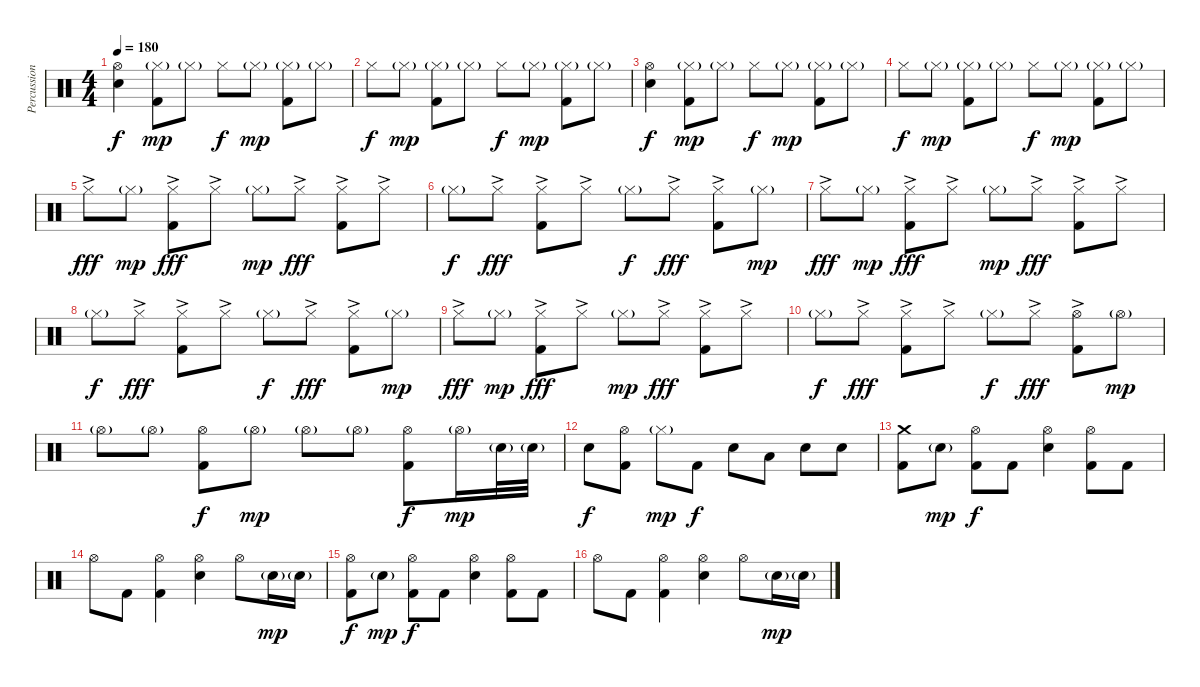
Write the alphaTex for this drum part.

\track ("Percussion" "Percussion") {instrument percussion}
\staff {score}
\articulation defaults
\ts (4 4)
\tempo 180
\clef neutral
\ks c
("Hi-Hat (open)" "Electric Snare (hit)").4{dy f} ("Hi-Hat (closed)"{g} "Kick (hit) 2").8{dy mp} "Hi-Hat (closed)"{g}.8 "Hi-Hat (closed)".8{dy f} "Hi-Hat (closed)"{g}.8{dy mp} ("Hi-Hat (closed)"{g} "Kick (hit) 2").8 "Hi-Hat (closed)"{g}.8 |
"Hi-Hat (closed)".8{dy f} "Hi-Hat (closed)"{g}.8{dy mp} ("Hi-Hat (closed)"{g} "Kick (hit) 2").8 "Hi-Hat (closed)"{g}.8 "Hi-Hat (closed)".8{dy f} "Hi-Hat (closed)"{g}.8{dy mp} ("Hi-Hat (closed)"{g} "Kick (hit) 2").8 "Hi-Hat (closed)"{g}.8 |
("Hi-Hat (open)" "Electric Snare (hit)").4{dy f} ("Hi-Hat (closed)"{g} "Kick (hit) 2").8{dy mp} "Hi-Hat (closed)"{g}.8 "Hi-Hat (closed)".8{dy f} "Hi-Hat (closed)"{g}.8{dy mp} ("Hi-Hat (closed)"{g} "Kick (hit) 2").8 "Hi-Hat (closed)"{g}.8 |
"Hi-Hat (closed)".8{dy f} "Hi-Hat (closed)"{g}.8{dy mp} ("Hi-Hat (closed)"{g} "Kick (hit) 2").8 "Hi-Hat (closed)"{g}.8 "Hi-Hat (closed)".8{dy f} "Hi-Hat (closed)"{g}.8{dy mp} ("Hi-Hat (closed)"{g} "Kick (hit) 2").8 "Hi-Hat (closed)"{g}.8 |
"Hi-Hat (closed)"{ac}.8{dy fff} "Hi-Hat (closed)"{g}.8{dy mp} ("Hi-Hat (closed)"{ac} "Kick (hit) 2").8{dy fff} "Hi-Hat (closed)"{ac}.8 "Hi-Hat (closed)"{g}.8{dy mp} "Hi-Hat (closed)"{ac}.8{dy fff} ("Hi-Hat (closed)"{ac} "Kick (hit) 2").8 "Hi-Hat (closed)"{ac}.8 |
"Hi-Hat (closed)"{g}.8{dy f} "Hi-Hat (closed)"{ac}.8{dy fff} ("Hi-Hat (closed)"{ac} "Kick (hit) 2").8 "Hi-Hat (closed)"{ac}.8 "Hi-Hat (closed)"{g}.8{dy f} "Hi-Hat (closed)"{ac}.8{dy fff} ("Hi-Hat (closed)"{ac} "Kick (hit) 2").8 "Hi-Hat (closed)"{g}.8{dy mp} |
"Hi-Hat (closed)"{ac}.8{dy fff} "Hi-Hat (closed)"{g}.8{dy mp} ("Hi-Hat (closed)"{ac} "Kick (hit) 2").8{dy fff} "Hi-Hat (closed)"{ac}.8 "Hi-Hat (closed)"{g}.8{dy mp} "Hi-Hat (closed)"{ac}.8{dy fff} ("Hi-Hat (closed)"{ac} "Kick (hit) 2").8 "Hi-Hat (closed)"{ac}.8 |
"Hi-Hat (closed)"{g}.8{dy f} "Hi-Hat (closed)"{ac}.8{dy fff} ("Hi-Hat (closed)"{ac} "Kick (hit) 2").8 "Hi-Hat (closed)"{ac}.8 "Hi-Hat (closed)"{g}.8{dy f} "Hi-Hat (closed)"{ac}.8{dy fff} ("Hi-Hat (closed)"{ac} "Kick (hit) 2").8 "Hi-Hat (closed)"{g}.8{dy mp} |
"Hi-Hat (closed)"{ac}.8{dy fff} "Hi-Hat (closed)"{g}.8{dy mp} ("Hi-Hat (closed)"{ac} "Kick (hit) 2").8{dy fff} "Hi-Hat (closed)"{ac}.8 "Hi-Hat (closed)"{g}.8{dy mp} "Hi-Hat (closed)"{ac}.8{dy fff} ("Hi-Hat (closed)"{ac} "Kick (hit) 2").8 "Hi-Hat (closed)"{ac}.8 |
"Hi-Hat (closed)"{g}.8{dy f} "Hi-Hat (closed)"{ac}.8{dy fff} ("Hi-Hat (closed)"{ac} "Kick (hit) 2").8 "Hi-Hat (closed)"{ac}.8 "Hi-Hat (closed)"{g}.8{dy f} "Hi-Hat (closed)"{ac}.8{dy fff} ("Hi-Hat (open)"{ac} "Kick (hit) 2").8 "Hi-Hat (open)"{g}.8{dy mp} |
"Hi-Hat (open)"{g}.8 "Hi-Hat (open)"{g}.8 ("Hi-Hat (open)" "Kick (hit) 2").8{dy f} "Hi-Hat (open)"{g}.8{dy mp} "Hi-Hat (open)"{g}.8 "Hi-Hat (open)"{g}.8 ("Hi-Hat (open)" "Kick (hit) 2").8{dy f} "Hi-Hat (open)"{g}.16{dy mp} "Electric Snare (hit)"{g}.32 "Electric Snare (hit)"{g}.32 |
"Electric Snare (hit)".8{dy f} ("Hi-Hat (open)" "Kick (hit) 2").8 "Hi-Hat (closed)"{g}.8{dy mp} "Kick (hit) 2".8{dy f} "Electric Snare (hit)".8 "Low Tom (hit)".8 "Electric Snare (hit)".8 "Electric Snare (hit)".8 |
("Crash medium (hit)" "Kick (hit) 2").8 "Electric Snare (hit)"{g}.8{dy mp} ("Hi-Hat (open)" "Kick (hit) 2").8{dy f} "Kick (hit) 2".8 ("Hi-Hat (open)" "Electric Snare (hit)").4 ("Hi-Hat (open)" "Kick (hit) 2").8 "Kick (hit) 2".8 |
"Hi-Hat (open)".8 "Kick (hit) 2".8 ("Hi-Hat (open)" "Kick (hit) 2").4 ("Hi-Hat (open)" "Electric Snare (hit)").4 "Hi-Hat (open)".8 "Electric Snare (hit)"{g}.16{dy mp} "Electric Snare (hit)"{g}.16 |
("Hi-Hat (open)" "Kick (hit) 2").8{dy f} "Electric Snare (hit)"{g}.8{dy mp} ("Hi-Hat (open)" "Kick (hit) 2").8{dy f} "Kick (hit) 2".8 ("Hi-Hat (open)" "Electric Snare (hit)").4 ("Hi-Hat (open)" "Kick (hit) 2").8 "Kick (hit) 2".8 |
"Hi-Hat (open)".8 "Kick (hit) 2".8 ("Hi-Hat (open)" "Kick (hit) 2").4 ("Hi-Hat (open)" "Electric Snare (hit)").4 "Hi-Hat (open)".8 "Electric Snare (hit)"{g}.16{dy mp} "Electric Snare (hit)"{g}.16
